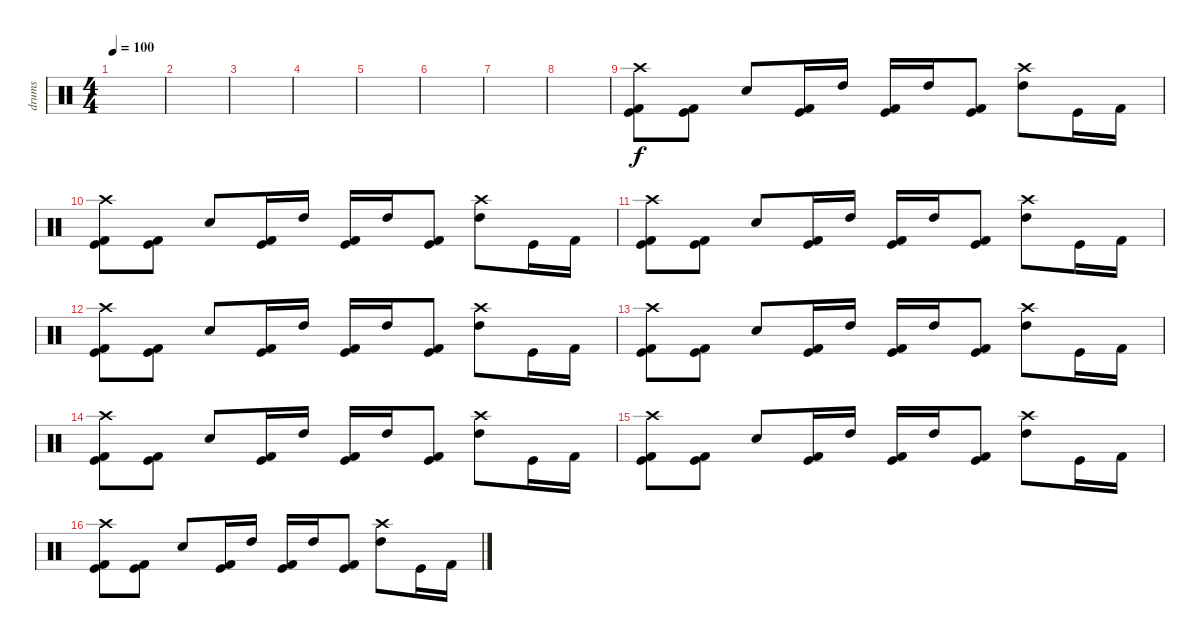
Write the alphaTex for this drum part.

\track ("drums" "drums") {instrument percussion}
\staff {score}
\articulation defaults
\ts (4 4)
\tempo 100
\clef neutral
\ks c
|
|
|
|
|
|
|
|
("Kick (hit) 2" "Kick (hit)" "Crash high (hit)").8 ("Kick (hit) 2" "Kick (hit)").8 "Snare (hit) 2".8 ("Kick (hit) 2" "Kick (hit)").16 "High Tom (hit)".16 ("Kick (hit) 2" "Kick (hit)").16 "High Tom (hit)".16 ("Kick (hit) 2" "Kick (hit)").8 ("High Tom (hit)" "Crash high (hit)").8 "Kick (hit)".16 "Kick (hit) 2".16 |
("Kick (hit) 2" "Kick (hit)" "Crash high (hit)").8 ("Kick (hit) 2" "Kick (hit)").8 "Snare (hit) 2".8 ("Kick (hit) 2" "Kick (hit)").16 "High Tom (hit)".16 ("Kick (hit) 2" "Kick (hit)").16 "High Tom (hit)".16 ("Kick (hit) 2" "Kick (hit)").8 ("High Tom (hit)" "Crash high (hit)").8 "Kick (hit)".16 "Kick (hit) 2".16 |
("Kick (hit) 2" "Kick (hit)" "Crash high (hit)").8 ("Kick (hit) 2" "Kick (hit)").8 "Snare (hit) 2".8 ("Kick (hit) 2" "Kick (hit)").16 "High Tom (hit)".16 ("Kick (hit) 2" "Kick (hit)").16 "High Tom (hit)".16 ("Kick (hit) 2" "Kick (hit)").8 ("High Tom (hit)" "Crash high (hit)").8 "Kick (hit)".16 "Kick (hit) 2".16 |
("Kick (hit) 2" "Kick (hit)" "Crash high (hit)").8 ("Kick (hit) 2" "Kick (hit)").8 "Snare (hit) 2".8 ("Kick (hit) 2" "Kick (hit)").16 "High Tom (hit)".16 ("Kick (hit) 2" "Kick (hit)").16 "High Tom (hit)".16 ("Kick (hit) 2" "Kick (hit)").8 ("High Tom (hit)" "Crash high (hit)").8 "Kick (hit)".16 "Kick (hit) 2".16 |
("Kick (hit) 2" "Kick (hit)" "Crash high (hit)").8 ("Kick (hit) 2" "Kick (hit)").8 "Snare (hit) 2".8 ("Kick (hit) 2" "Kick (hit)").16 "High Tom (hit)".16 ("Kick (hit) 2" "Kick (hit)").16 "High Tom (hit)".16 ("Kick (hit) 2" "Kick (hit)").8 ("High Tom (hit)" "Crash high (hit)").8 "Kick (hit)".16 "Kick (hit) 2".16 |
("Kick (hit) 2" "Kick (hit)" "Crash high (hit)").8 ("Kick (hit) 2" "Kick (hit)").8 "Snare (hit) 2".8 ("Kick (hit) 2" "Kick (hit)").16 "High Tom (hit)".16 ("Kick (hit) 2" "Kick (hit)").16 "High Tom (hit)".16 ("Kick (hit) 2" "Kick (hit)").8 ("High Tom (hit)" "Crash high (hit)").8 "Kick (hit)".16 "Kick (hit) 2".16 |
("Kick (hit) 2" "Kick (hit)" "Crash high (hit)").8 ("Kick (hit) 2" "Kick (hit)").8 "Snare (hit) 2".8 ("Kick (hit) 2" "Kick (hit)").16 "High Tom (hit)".16 ("Kick (hit) 2" "Kick (hit)").16 "High Tom (hit)".16 ("Kick (hit) 2" "Kick (hit)").8 ("High Tom (hit)" "Crash high (hit)").8 "Kick (hit)".16 "Kick (hit) 2".16 |
("Kick (hit) 2" "Kick (hit)" "Crash high (hit)").8 ("Kick (hit) 2" "Kick (hit)").8 "Snare (hit) 2".8 ("Kick (hit) 2" "Kick (hit)").16 "High Tom (hit)".16 ("Kick (hit) 2" "Kick (hit)").16 "High Tom (hit)".16 ("Kick (hit) 2" "Kick (hit)").8 ("High Tom (hit)" "Crash high (hit)").8 "Kick (hit)".16 "Kick (hit) 2".16
